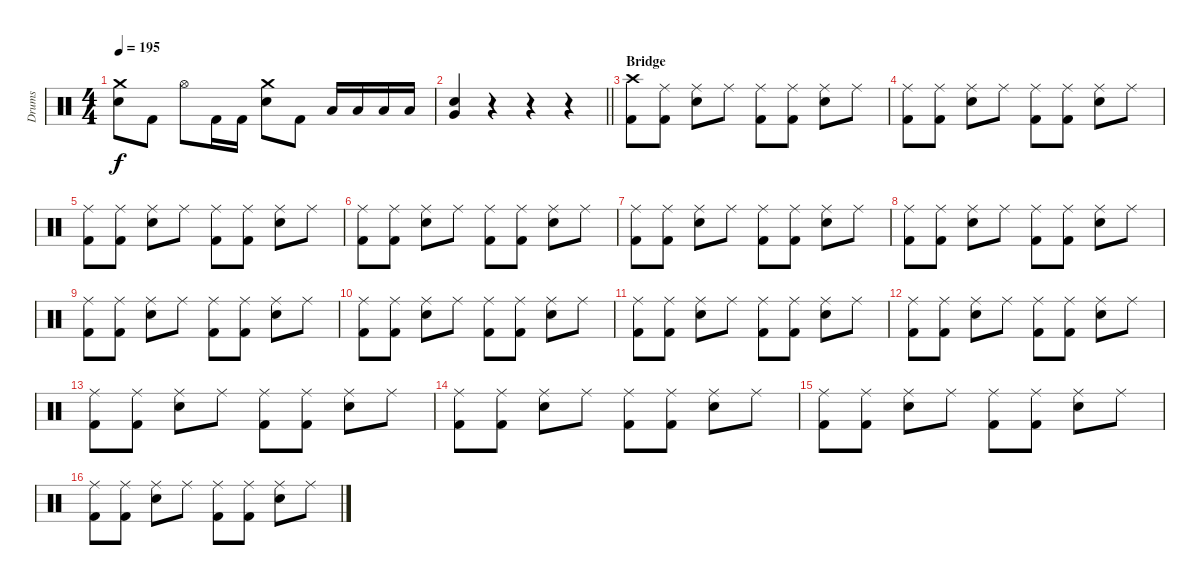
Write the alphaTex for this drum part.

\track ("Drums" "Drums") {instrument percussion}
\staff {score}
\articulation defaults
\ts (4 4)
\tempo 195
\clef neutral
\ks c
("Crash medium (hit)" "Electric Snare (hit)").8{dy f} "Kick (hit) 2".8 "Hi-Hat (open)".8 "Kick (hit) 2".16 "Kick (hit) 2".16 ("Crash medium (hit)" "Electric Snare (hit)").8 "Kick (hit) 2".8 "Low Tom (hit)".16 "Low Tom (hit)".16 "Low Tom (hit)".16 "Low Tom (hit)".16 |
\barLineRight lightlight
("Very Low Tom (hit)" "Electric Snare (hit)").4 r.4 r.4 r.4 |
\section ("" "Bridge")
("Crash high (hit)" "Kick (hit) 2").8 ("Ride (middle)" "Kick (hit) 2").8 ("Ride (middle)" "Electric Snare (hit)").8 "Ride (middle)".8 ("Ride (middle)" "Kick (hit) 2").8 ("Ride (middle)" "Kick (hit) 2").8 ("Ride (middle)" "Electric Snare (hit)").8 "Ride (middle)".8 |
("Ride (middle)" "Kick (hit) 2").8 ("Ride (middle)" "Kick (hit) 2").8 ("Ride (middle)" "Electric Snare (hit)").8 "Ride (middle)".8 ("Ride (middle)" "Kick (hit) 2").8 ("Ride (middle)" "Kick (hit) 2").8 ("Ride (middle)" "Electric Snare (hit)").8 "Ride (middle)".8 |
("Ride (middle)" "Kick (hit) 2").8 ("Ride (middle)" "Kick (hit) 2").8 ("Ride (middle)" "Electric Snare (hit)").8 "Ride (middle)".8 ("Ride (middle)" "Kick (hit) 2").8 ("Ride (middle)" "Kick (hit) 2").8 ("Ride (middle)" "Electric Snare (hit)").8 "Ride (middle)".8 |
("Ride (middle)" "Kick (hit) 2").8 ("Ride (middle)" "Kick (hit) 2").8 ("Ride (middle)" "Electric Snare (hit)").8 "Ride (middle)".8 ("Ride (middle)" "Kick (hit) 2").8 ("Ride (middle)" "Kick (hit) 2").8 ("Ride (middle)" "Electric Snare (hit)").8 "Ride (middle)".8 |
("Ride (middle)" "Kick (hit) 2").8 ("Ride (middle)" "Kick (hit) 2").8 ("Ride (middle)" "Electric Snare (hit)").8 "Ride (middle)".8 ("Ride (middle)" "Kick (hit) 2").8 ("Ride (middle)" "Kick (hit) 2").8 ("Ride (middle)" "Electric Snare (hit)").8 "Ride (middle)".8 |
("Ride (middle)" "Kick (hit) 2").8 ("Ride (middle)" "Kick (hit) 2").8 ("Ride (middle)" "Electric Snare (hit)").8 "Ride (middle)".8 ("Ride (middle)" "Kick (hit) 2").8 ("Ride (middle)" "Kick (hit) 2").8 ("Ride (middle)" "Electric Snare (hit)").8 "Ride (middle)".8 |
("Ride (middle)" "Kick (hit) 2").8 ("Ride (middle)" "Kick (hit) 2").8 ("Ride (middle)" "Electric Snare (hit)").8 "Ride (middle)".8 ("Ride (middle)" "Kick (hit) 2").8 ("Ride (middle)" "Kick (hit) 2").8 ("Ride (middle)" "Electric Snare (hit)").8 "Ride (middle)".8 |
("Ride (middle)" "Kick (hit) 2").8 ("Ride (middle)" "Kick (hit) 2").8 ("Ride (middle)" "Electric Snare (hit)").8 "Ride (middle)".8 ("Ride (middle)" "Kick (hit) 2").8 ("Ride (middle)" "Kick (hit) 2").8 ("Ride (middle)" "Electric Snare (hit)").8 "Ride (middle)".8 |
("Ride (middle)" "Kick (hit) 2").8 ("Ride (middle)" "Kick (hit) 2").8 ("Ride (middle)" "Electric Snare (hit)").8 "Ride (middle)".8 ("Ride (middle)" "Kick (hit) 2").8 ("Ride (middle)" "Kick (hit) 2").8 ("Ride (middle)" "Electric Snare (hit)").8 "Ride (middle)".8 |
("Ride (middle)" "Kick (hit) 2").8 ("Ride (middle)" "Kick (hit) 2").8 ("Ride (middle)" "Electric Snare (hit)").8 "Ride (middle)".8 ("Ride (middle)" "Kick (hit) 2").8 ("Ride (middle)" "Kick (hit) 2").8 ("Ride (middle)" "Electric Snare (hit)").8 "Ride (middle)".8 |
("Ride (middle)" "Kick (hit) 2").8 ("Ride (middle)" "Kick (hit) 2").8 ("Ride (middle)" "Electric Snare (hit)").8 "Ride (middle)".8 ("Ride (middle)" "Kick (hit) 2").8 ("Ride (middle)" "Kick (hit) 2").8 ("Ride (middle)" "Electric Snare (hit)").8 "Ride (middle)".8 |
("Ride (middle)" "Kick (hit) 2").8 ("Ride (middle)" "Kick (hit) 2").8 ("Ride (middle)" "Electric Snare (hit)").8 "Ride (middle)".8 ("Ride (middle)" "Kick (hit) 2").8 ("Ride (middle)" "Kick (hit) 2").8 ("Ride (middle)" "Electric Snare (hit)").8 "Ride (middle)".8 |
("Ride (middle)" "Kick (hit) 2").8 ("Ride (middle)" "Kick (hit) 2").8 ("Ride (middle)" "Electric Snare (hit)").8 "Ride (middle)".8 ("Ride (middle)" "Kick (hit) 2").8 ("Ride (middle)" "Kick (hit) 2").8 ("Ride (middle)" "Electric Snare (hit)").8 "Ride (middle)".8 |
("Ride (middle)" "Kick (hit) 2").8 ("Ride (middle)" "Kick (hit) 2").8 ("Ride (middle)" "Electric Snare (hit)").8 "Ride (middle)".8 ("Ride (middle)" "Kick (hit) 2").8 ("Ride (middle)" "Kick (hit) 2").8 ("Ride (middle)" "Electric Snare (hit)").8 "Ride (middle)".8
